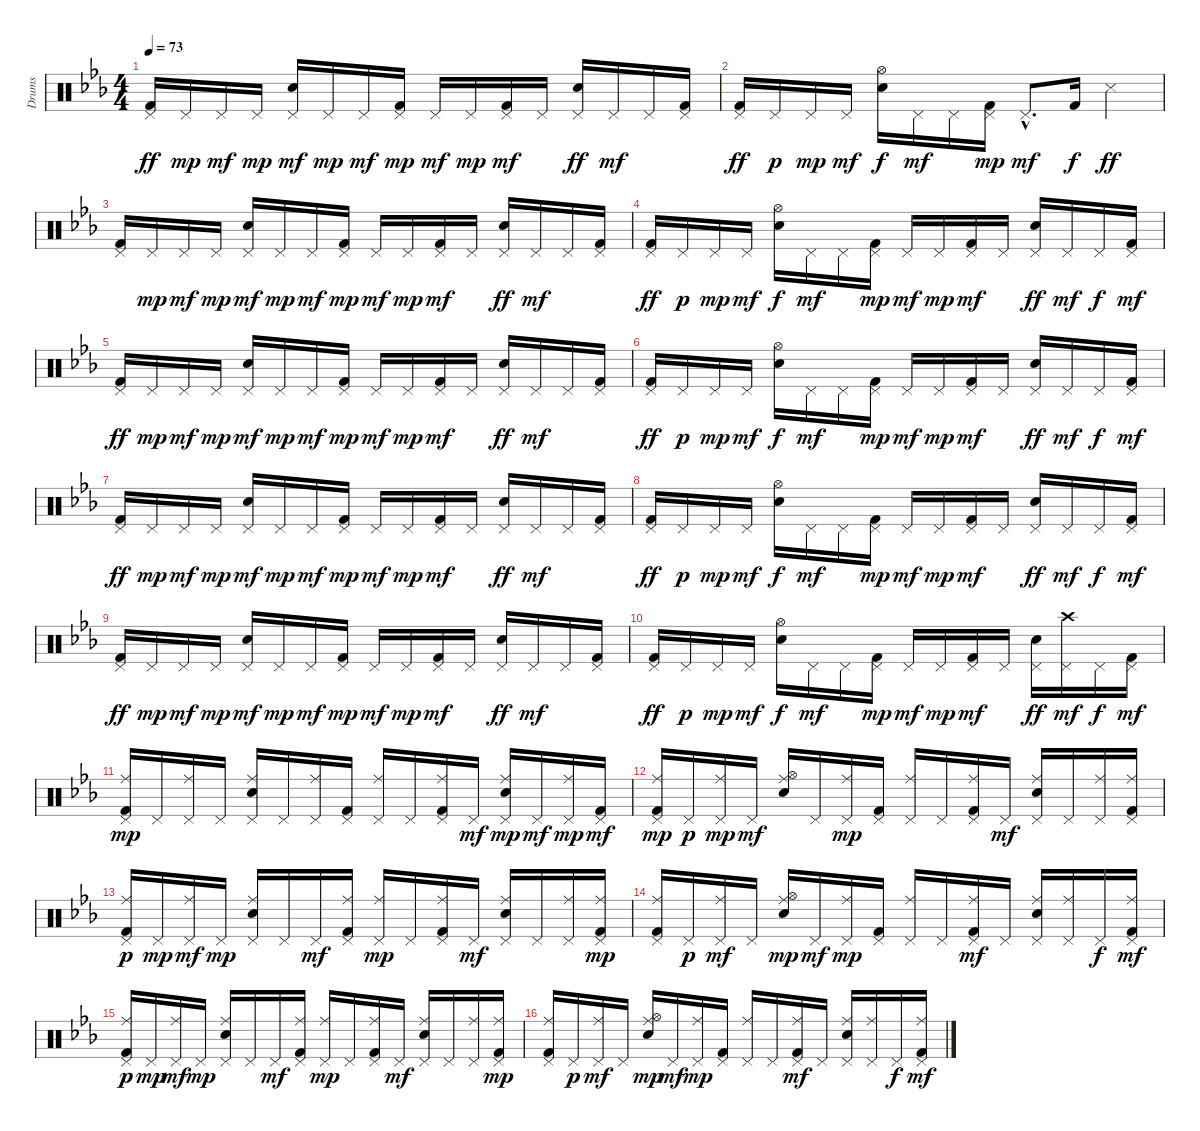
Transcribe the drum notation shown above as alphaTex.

\track ("Drums" "Drums") {instrument percussion}
\staff {score}
\articulation defaults
\ts (4 4)
\tempo 73
\clef neutral
\ks eb
("Kick (hit) 2" "Pedal Hi-Hat (hit)").16{dy ff} "Pedal Hi-Hat (hit)".16{dy mp} "Pedal Hi-Hat (hit)".16{dy mf} "Pedal Hi-Hat (hit)".16{dy mp} ("Snare (hit) 2" "Pedal Hi-Hat (hit)").16{dy mf} "Pedal Hi-Hat (hit)".16{dy mp} "Pedal Hi-Hat (hit)".16{dy mf} ("Kick (hit) 2" "Pedal Hi-Hat (hit)").16{dy mp} "Pedal Hi-Hat (hit)".16{dy mf} "Pedal Hi-Hat (hit)".16{dy mp} ("Kick (hit) 2" "Pedal Hi-Hat (hit)").16{dy mf} "Pedal Hi-Hat (hit)".16 ("Snare (hit) 2" "Pedal Hi-Hat (hit)").16{dy ff} "Pedal Hi-Hat (hit)".16{dy mf} "Pedal Hi-Hat (hit)".16 ("Kick (hit) 2" "Pedal Hi-Hat (hit)").16 |
("Kick (hit) 2" "Pedal Hi-Hat (hit)").16{dy ff} "Pedal Hi-Hat (hit)".16{dy p} "Pedal Hi-Hat (hit)".16{dy mp} "Pedal Hi-Hat (hit)".16{dy mf} ("Snare (hit) 2" "Hi-Hat (open)").16{dy f} "Pedal Hi-Hat (hit)".16{dy mf} "Pedal Hi-Hat (hit)".16 ("Kick (hit) 2" "Pedal Hi-Hat (hit)").16{dy mp} "Pedal Hi-Hat (hit)"{hac}.8{d dy mf} "Kick (hit) 2".16{dy f} "Snare (side stick) 3".4{dy ff} |
("Kick (hit) 2" "Pedal Hi-Hat (hit)").16 "Pedal Hi-Hat (hit)".16{dy mp} "Pedal Hi-Hat (hit)".16{dy mf} "Pedal Hi-Hat (hit)".16{dy mp} ("Snare (hit) 2" "Pedal Hi-Hat (hit)").16{dy mf} "Pedal Hi-Hat (hit)".16{dy mp} "Pedal Hi-Hat (hit)".16{dy mf} ("Kick (hit) 2" "Pedal Hi-Hat (hit)").16{dy mp} "Pedal Hi-Hat (hit)".16{dy mf} "Pedal Hi-Hat (hit)".16{dy mp} ("Kick (hit) 2" "Pedal Hi-Hat (hit)").16{dy mf} "Pedal Hi-Hat (hit)".16 ("Snare (hit) 2" "Pedal Hi-Hat (hit)").16{dy ff} "Pedal Hi-Hat (hit)".16{dy mf} "Pedal Hi-Hat (hit)".16 ("Kick (hit) 2" "Pedal Hi-Hat (hit)").16 |
("Kick (hit) 2" "Pedal Hi-Hat (hit)").16{dy ff} "Pedal Hi-Hat (hit)".16{dy p} "Pedal Hi-Hat (hit)".16{dy mp} "Pedal Hi-Hat (hit)".16{dy mf} ("Snare (hit) 2" "Hi-Hat (open)").16{dy f} "Pedal Hi-Hat (hit)".16{dy mf} "Pedal Hi-Hat (hit)".16 ("Kick (hit) 2" "Pedal Hi-Hat (hit)").16{dy mp} "Pedal Hi-Hat (hit)".16{dy mf} "Pedal Hi-Hat (hit)".16{dy mp} ("Kick (hit) 2" "Pedal Hi-Hat (hit)").16{dy mf} "Pedal Hi-Hat (hit)".16 ("Snare (hit) 2" "Pedal Hi-Hat (hit)").16{dy ff} "Pedal Hi-Hat (hit)".16{dy mf} "Pedal Hi-Hat (hit)".16{dy f} ("Kick (hit) 2" "Pedal Hi-Hat (hit)").16{dy mf} |
("Kick (hit) 2" "Pedal Hi-Hat (hit)").16{dy ff} "Pedal Hi-Hat (hit)".16{dy mp} "Pedal Hi-Hat (hit)".16{dy mf} "Pedal Hi-Hat (hit)".16{dy mp} ("Snare (hit) 2" "Pedal Hi-Hat (hit)").16{dy mf} "Pedal Hi-Hat (hit)".16{dy mp} "Pedal Hi-Hat (hit)".16{dy mf} ("Kick (hit) 2" "Pedal Hi-Hat (hit)").16{dy mp} "Pedal Hi-Hat (hit)".16{dy mf} "Pedal Hi-Hat (hit)".16{dy mp} ("Kick (hit) 2" "Pedal Hi-Hat (hit)").16{dy mf} "Pedal Hi-Hat (hit)".16 ("Snare (hit) 2" "Pedal Hi-Hat (hit)").16{dy ff} "Pedal Hi-Hat (hit)".16{dy mf} "Pedal Hi-Hat (hit)".16 ("Kick (hit) 2" "Pedal Hi-Hat (hit)").16 |
("Kick (hit) 2" "Pedal Hi-Hat (hit)").16{dy ff} "Pedal Hi-Hat (hit)".16{dy p} "Pedal Hi-Hat (hit)".16{dy mp} "Pedal Hi-Hat (hit)".16{dy mf} ("Snare (hit) 2" "Hi-Hat (open)").16{dy f} "Pedal Hi-Hat (hit)".16{dy mf} "Pedal Hi-Hat (hit)".16 ("Kick (hit) 2" "Pedal Hi-Hat (hit)").16{dy mp} "Pedal Hi-Hat (hit)".16{dy mf} "Pedal Hi-Hat (hit)".16{dy mp} ("Kick (hit) 2" "Pedal Hi-Hat (hit)").16{dy mf} "Pedal Hi-Hat (hit)".16 ("Snare (hit) 2" "Pedal Hi-Hat (hit)").16{dy ff} "Pedal Hi-Hat (hit)".16{dy mf} "Pedal Hi-Hat (hit)".16{dy f} ("Kick (hit) 2" "Pedal Hi-Hat (hit)").16{dy mf} |
("Kick (hit) 2" "Pedal Hi-Hat (hit)").16{dy ff} "Pedal Hi-Hat (hit)".16{dy mp} "Pedal Hi-Hat (hit)".16{dy mf} "Pedal Hi-Hat (hit)".16{dy mp} ("Snare (hit) 2" "Pedal Hi-Hat (hit)").16{dy mf} "Pedal Hi-Hat (hit)".16{dy mp} "Pedal Hi-Hat (hit)".16{dy mf} ("Kick (hit) 2" "Pedal Hi-Hat (hit)").16{dy mp} "Pedal Hi-Hat (hit)".16{dy mf} "Pedal Hi-Hat (hit)".16{dy mp} ("Kick (hit) 2" "Pedal Hi-Hat (hit)").16{dy mf} "Pedal Hi-Hat (hit)".16 ("Snare (hit) 2" "Pedal Hi-Hat (hit)").16{dy ff} "Pedal Hi-Hat (hit)".16{dy mf} "Pedal Hi-Hat (hit)".16 ("Kick (hit) 2" "Pedal Hi-Hat (hit)").16 |
("Kick (hit) 2" "Pedal Hi-Hat (hit)").16{dy ff} "Pedal Hi-Hat (hit)".16{dy p} "Pedal Hi-Hat (hit)".16{dy mp} "Pedal Hi-Hat (hit)".16{dy mf} ("Snare (hit) 2" "Hi-Hat (open)").16{dy f} "Pedal Hi-Hat (hit)".16{dy mf} "Pedal Hi-Hat (hit)".16 ("Kick (hit) 2" "Pedal Hi-Hat (hit)").16{dy mp} "Pedal Hi-Hat (hit)".16{dy mf} "Pedal Hi-Hat (hit)".16{dy mp} ("Kick (hit) 2" "Pedal Hi-Hat (hit)").16{dy mf} "Pedal Hi-Hat (hit)".16 ("Snare (hit) 2" "Pedal Hi-Hat (hit)").16{dy ff} "Pedal Hi-Hat (hit)".16{dy mf} "Pedal Hi-Hat (hit)".16{dy f} ("Kick (hit) 2" "Pedal Hi-Hat (hit)").16{dy mf} |
("Kick (hit) 2" "Pedal Hi-Hat (hit)").16{dy ff} "Pedal Hi-Hat (hit)".16{dy mp} "Pedal Hi-Hat (hit)".16{dy mf} "Pedal Hi-Hat (hit)".16{dy mp} ("Snare (hit) 2" "Pedal Hi-Hat (hit)").16{dy mf} "Pedal Hi-Hat (hit)".16{dy mp} "Pedal Hi-Hat (hit)".16{dy mf} ("Kick (hit) 2" "Pedal Hi-Hat (hit)").16{dy mp} "Pedal Hi-Hat (hit)".16{dy mf} "Pedal Hi-Hat (hit)".16{dy mp} ("Kick (hit) 2" "Pedal Hi-Hat (hit)").16{dy mf} "Pedal Hi-Hat (hit)".16 ("Snare (hit) 2" "Pedal Hi-Hat (hit)").16{dy ff} "Pedal Hi-Hat (hit)".16{dy mf} "Pedal Hi-Hat (hit)".16 ("Kick (hit) 2" "Pedal Hi-Hat (hit)").16 |
("Kick (hit) 2" "Pedal Hi-Hat (hit)").16{dy ff} "Pedal Hi-Hat (hit)".16{dy p} "Pedal Hi-Hat (hit)".16{dy mp} "Pedal Hi-Hat (hit)".16{dy mf} ("Snare (hit) 2" "Hi-Hat (open)").16{dy f} "Pedal Hi-Hat (hit)".16{dy mf} "Pedal Hi-Hat (hit)".16 ("Kick (hit) 2" "Pedal Hi-Hat (hit)").16{dy mp} "Pedal Hi-Hat (hit)".16{dy mf} "Pedal Hi-Hat (hit)".16{dy mp} ("Kick (hit) 2" "Pedal Hi-Hat (hit)").16{dy mf} "Pedal Hi-Hat (hit)".16 ("Snare (hit) 2" "Pedal Hi-Hat (hit)").16{dy ff} ("Pedal Hi-Hat (hit)" "Crash high (hit)").16{dy mf} "Pedal Hi-Hat (hit)".16{dy f} ("Kick (hit) 2" "Pedal Hi-Hat (hit)").16{dy mf} |
("Kick (hit) 2" "Pedal Hi-Hat (hit)" "Ride (middle)").16{dy mp} "Pedal Hi-Hat (hit)".16 ("Pedal Hi-Hat (hit)" "Ride (middle)").16 "Pedal Hi-Hat (hit)".16 ("Snare (hit) 2" "Pedal Hi-Hat (hit)" "Ride (middle)").16 "Pedal Hi-Hat (hit)".16 ("Pedal Hi-Hat (hit)" "Ride (middle)").16 ("Kick (hit) 2" "Pedal Hi-Hat (hit)").16 ("Pedal Hi-Hat (hit)" "Ride (middle)").16 "Pedal Hi-Hat (hit)".16 ("Kick (hit) 2" "Pedal Hi-Hat (hit)" "Ride (middle)").16 "Pedal Hi-Hat (hit)".16{dy mf} ("Snare (hit) 2" "Pedal Hi-Hat (hit)" "Ride (middle)").16{dy mp} "Pedal Hi-Hat (hit)".16{dy mf} ("Pedal Hi-Hat (hit)" "Ride (middle)").16{dy mp} ("Kick (hit) 2" "Pedal Hi-Hat (hit)").16{dy mf} |
("Kick (hit) 2" "Pedal Hi-Hat (hit)" "Ride (middle)").16{dy mp} "Pedal Hi-Hat (hit)".16{dy p} ("Pedal Hi-Hat (hit)" "Ride (middle)").16{dy mp} "Pedal Hi-Hat (hit)".16{dy mf} ("Snare (hit) 2" "Hi-Hat (open)" "Ride (middle)").16 "Pedal Hi-Hat (hit)".16 ("Pedal Hi-Hat (hit)" "Ride (middle)").16{dy mp} ("Kick (hit) 2" "Pedal Hi-Hat (hit)").16 ("Pedal Hi-Hat (hit)" "Ride (middle)").16 "Pedal Hi-Hat (hit)".16 ("Kick (hit) 2" "Pedal Hi-Hat (hit)" "Ride (middle)").16 "Pedal Hi-Hat (hit)".16{dy mf} ("Snare (hit) 2" "Pedal Hi-Hat (hit)" "Ride (middle)").16 "Pedal Hi-Hat (hit)".16 ("Pedal Hi-Hat (hit)" "Ride (middle)").16 ("Kick (hit) 2" "Pedal Hi-Hat (hit)" "Ride (middle)").16 |
("Kick (hit) 2" "Pedal Hi-Hat (hit)" "Ride (middle)").16{dy p} "Pedal Hi-Hat (hit)".16{dy mp} ("Pedal Hi-Hat (hit)" "Ride (middle)").16{dy mf} "Pedal Hi-Hat (hit)".16{dy mp} ("Snare (hit) 2" "Pedal Hi-Hat (hit)" "Ride (middle)").16 "Pedal Hi-Hat (hit)".16 "Pedal Hi-Hat (hit)".16{dy mf} ("Kick (hit) 2" "Pedal Hi-Hat (hit)" "Ride (middle)").16 ("Pedal Hi-Hat (hit)" "Ride (middle)").16{dy mp} "Pedal Hi-Hat (hit)".16 ("Kick (hit) 2" "Pedal Hi-Hat (hit)" "Ride (middle)").16 "Pedal Hi-Hat (hit)".16{dy mf} ("Snare (hit) 2" "Pedal Hi-Hat (hit)" "Ride (middle)").16 "Pedal Hi-Hat (hit)".16 ("Pedal Hi-Hat (hit)" "Ride (middle)").16 ("Kick (hit) 2" "Pedal Hi-Hat (hit)" "Ride (middle)").16{dy mp} |
("Kick (hit) 2" "Pedal Hi-Hat (hit)" "Ride (middle)").16 "Pedal Hi-Hat (hit)".16{dy p} ("Pedal Hi-Hat (hit)" "Ride (middle)").16{dy mf} "Pedal Hi-Hat (hit)".16 ("Snare (hit) 2" "Hi-Hat (open)" "Ride (middle)").16{dy mp} "Pedal Hi-Hat (hit)".16{dy mf} ("Pedal Hi-Hat (hit)" "Ride (middle)").16{dy mp} ("Kick (hit) 2" "Pedal Hi-Hat (hit)").16 ("Pedal Hi-Hat (hit)" "Ride (middle)").16 "Pedal Hi-Hat (hit)".16 ("Kick (hit) 2" "Pedal Hi-Hat (hit)" "Ride (middle)").16{dy mf} "Pedal Hi-Hat (hit)".16 ("Snare (hit) 2" "Pedal Hi-Hat (hit)" "Ride (middle)").16 ("Pedal Hi-Hat (hit)" "Ride (middle)").16 "Pedal Hi-Hat (hit)".16{dy f} ("Kick (hit) 2" "Pedal Hi-Hat (hit)" "Ride (middle)").16{dy mf} |
("Kick (hit) 2" "Pedal Hi-Hat (hit)" "Ride (middle)").16{dy p} "Pedal Hi-Hat (hit)".16{dy mp} ("Pedal Hi-Hat (hit)" "Ride (middle)").16{dy mf} "Pedal Hi-Hat (hit)".16{dy mp} ("Snare (hit) 2" "Pedal Hi-Hat (hit)" "Ride (middle)").16 "Pedal Hi-Hat (hit)".16 "Pedal Hi-Hat (hit)".16{dy mf} ("Kick (hit) 2" "Pedal Hi-Hat (hit)" "Ride (middle)").16 ("Pedal Hi-Hat (hit)" "Ride (middle)").16{dy mp} "Pedal Hi-Hat (hit)".16 ("Kick (hit) 2" "Pedal Hi-Hat (hit)" "Ride (middle)").16 "Pedal Hi-Hat (hit)".16{dy mf} ("Snare (hit) 2" "Pedal Hi-Hat (hit)" "Ride (middle)").16 "Pedal Hi-Hat (hit)".16 ("Pedal Hi-Hat (hit)" "Ride (middle)").16 ("Kick (hit) 2" "Pedal Hi-Hat (hit)" "Ride (middle)").16{dy mp} |
("Kick (hit) 2" "Pedal Hi-Hat (hit)" "Ride (middle)").16 "Pedal Hi-Hat (hit)".16{dy p} ("Pedal Hi-Hat (hit)" "Ride (middle)").16{dy mf} "Pedal Hi-Hat (hit)".16 ("Snare (hit) 2" "Hi-Hat (open)" "Ride (middle)").16{dy mp} "Pedal Hi-Hat (hit)".16{dy mf} ("Pedal Hi-Hat (hit)" "Ride (middle)").16{dy mp} ("Kick (hit) 2" "Pedal Hi-Hat (hit)").16 ("Pedal Hi-Hat (hit)" "Ride (middle)").16 "Pedal Hi-Hat (hit)".16 ("Kick (hit) 2" "Pedal Hi-Hat (hit)" "Ride (middle)").16{dy mf} "Pedal Hi-Hat (hit)".16 ("Snare (hit) 2" "Pedal Hi-Hat (hit)" "Ride (middle)").16 ("Pedal Hi-Hat (hit)" "Ride (middle)").16 "Pedal Hi-Hat (hit)".16{dy f} ("Kick (hit) 2" "Pedal Hi-Hat (hit)" "Ride (middle)").16{dy mf}
